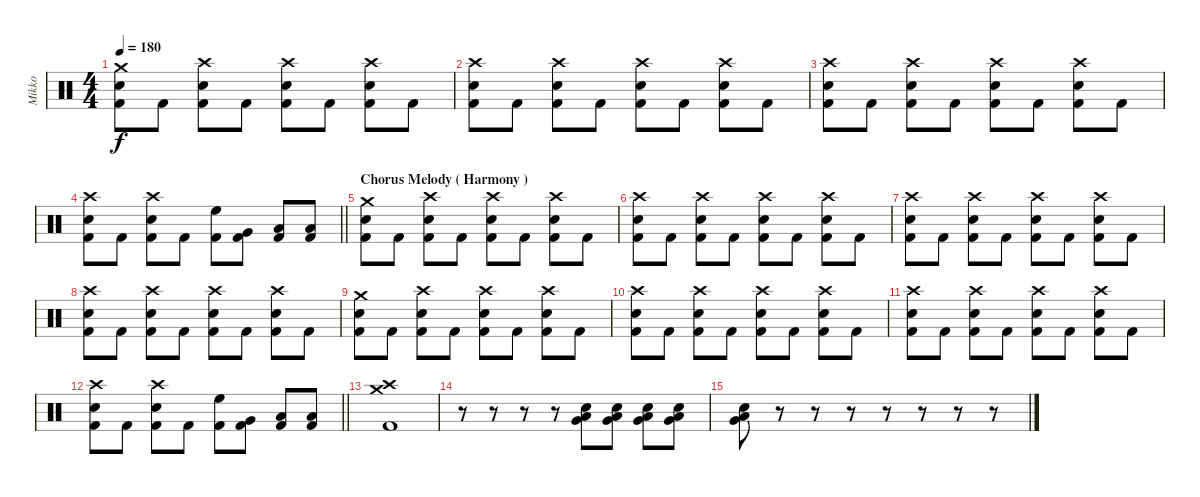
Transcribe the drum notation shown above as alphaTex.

\track ("Mikko" "Mikko") {instrument percussion}
\staff {score}
\articulation defaults
\ts (4 4)
\tempo 180
\clef neutral
\ks c
("Crash medium (hit)" "Electric Snare (hit)" "Kick (hit) 2").8{dy f} "Kick (hit) 2".8 ("Crash high (hit)" "Electric Snare (hit)" "Kick (hit) 2").8 "Kick (hit) 2".8 ("Crash high (hit)" "Electric Snare (hit)" "Kick (hit) 2").8 "Kick (hit) 2".8 ("Crash high (hit)" "Electric Snare (hit)" "Kick (hit) 2").8 "Kick (hit) 2".8 |
("Crash high (hit)" "Electric Snare (hit)" "Kick (hit) 2").8 "Kick (hit) 2".8 ("Crash high (hit)" "Electric Snare (hit)" "Kick (hit) 2").8 "Kick (hit) 2".8 ("Crash high (hit)" "Electric Snare (hit)" "Kick (hit) 2").8 "Kick (hit) 2".8 ("Crash high (hit)" "Electric Snare (hit)" "Kick (hit) 2").8 "Kick (hit) 2".8 |
("Crash high (hit)" "Electric Snare (hit)" "Kick (hit) 2").8 "Kick (hit) 2".8 ("Crash high (hit)" "Electric Snare (hit)" "Kick (hit) 2").8 "Kick (hit) 2".8 ("Crash high (hit)" "Electric Snare (hit)" "Kick (hit) 2").8 "Kick (hit) 2".8 ("Crash high (hit)" "Electric Snare (hit)" "Kick (hit) 2").8 "Kick (hit) 2".8 |
\barLineRight lightlight
("Crash high (hit)" "Electric Snare (hit)" "Kick (hit) 2").8 "Kick (hit) 2".8 ("Crash high (hit)" "Electric Snare (hit)" "Kick (hit) 2").8 "Kick (hit) 2".8 ("High Floor Tom (hit)" "Kick (hit) 2").8 ("Very Low Tom (hit)" "Kick (hit) 2").8 ("Low Floor Tom (hit)" "Kick (hit) 2").8 ("Low Tom (hit)" "Kick (hit) 2").8 |
\section ("" "Chorus Melody ( Harmony )")
("Crash medium (hit)" "Electric Snare (hit)" "Kick (hit) 2").8 "Kick (hit) 2".8 ("Crash high (hit)" "Electric Snare (hit)" "Kick (hit) 2").8 "Kick (hit) 2".8 ("Crash high (hit)" "Electric Snare (hit)" "Kick (hit) 2").8 "Kick (hit) 2".8 ("Crash high (hit)" "Electric Snare (hit)" "Kick (hit) 2").8 "Kick (hit) 2".8 |
("Crash high (hit)" "Electric Snare (hit)" "Kick (hit) 2").8 "Kick (hit) 2".8 ("Crash high (hit)" "Electric Snare (hit)" "Kick (hit) 2").8 "Kick (hit) 2".8 ("Crash high (hit)" "Electric Snare (hit)" "Kick (hit) 2").8 "Kick (hit) 2".8 ("Crash high (hit)" "Electric Snare (hit)" "Kick (hit) 2").8 "Kick (hit) 2".8 |
("Crash high (hit)" "Electric Snare (hit)" "Kick (hit) 2").8 "Kick (hit) 2".8 ("Crash high (hit)" "Electric Snare (hit)" "Kick (hit) 2").8 "Kick (hit) 2".8 ("Crash high (hit)" "Electric Snare (hit)" "Kick (hit) 2").8 "Kick (hit) 2".8 ("Crash high (hit)" "Electric Snare (hit)" "Kick (hit) 2").8 "Kick (hit) 2".8 |
("Crash high (hit)" "Electric Snare (hit)" "Kick (hit) 2").8 "Kick (hit) 2".8 ("Crash high (hit)" "Electric Snare (hit)" "Kick (hit) 2").8 "Kick (hit) 2".8 ("Crash high (hit)" "Electric Snare (hit)" "Kick (hit) 2").8 "Kick (hit) 2".8 ("Crash high (hit)" "Electric Snare (hit)" "Kick (hit) 2").8 "Kick (hit) 2".8 |
("Crash medium (hit)" "Electric Snare (hit)" "Kick (hit) 2").8 "Kick (hit) 2".8 ("Crash high (hit)" "Electric Snare (hit)" "Kick (hit) 2").8 "Kick (hit) 2".8 ("Crash high (hit)" "Electric Snare (hit)" "Kick (hit) 2").8 "Kick (hit) 2".8 ("Crash high (hit)" "Electric Snare (hit)" "Kick (hit) 2").8 "Kick (hit) 2".8 |
("Crash high (hit)" "Electric Snare (hit)" "Kick (hit) 2").8 "Kick (hit) 2".8 ("Crash high (hit)" "Electric Snare (hit)" "Kick (hit) 2").8 "Kick (hit) 2".8 ("Crash high (hit)" "Electric Snare (hit)" "Kick (hit) 2").8 "Kick (hit) 2".8 ("Crash high (hit)" "Electric Snare (hit)" "Kick (hit) 2").8 "Kick (hit) 2".8 |
("Crash high (hit)" "Electric Snare (hit)" "Kick (hit) 2").8 "Kick (hit) 2".8 ("Crash high (hit)" "Electric Snare (hit)" "Kick (hit) 2").8 "Kick (hit) 2".8 ("Crash high (hit)" "Electric Snare (hit)" "Kick (hit) 2").8 "Kick (hit) 2".8 ("Crash high (hit)" "Electric Snare (hit)" "Kick (hit) 2").8 "Kick (hit) 2".8 |
\barLineRight lightlight
("Crash high (hit)" "Electric Snare (hit)" "Kick (hit) 2").8 "Kick (hit) 2".8 ("Crash high (hit)" "Electric Snare (hit)" "Kick (hit) 2").8 "Kick (hit) 2".8 ("High Floor Tom (hit)" "Kick (hit) 2").8 ("Very Low Tom (hit)" "Kick (hit) 2").8 ("Low Floor Tom (hit)" "Kick (hit) 2").8 ("Low Tom (hit)" "Kick (hit) 2").8 |
("Crash medium (hit)" "Crash high (hit)" "Kick (hit) 2").1 |
r.8 r.8 r.8 r.8 ("Very Low Tom (hit)" "Low Tom (hit)" "Electric Snare (hit)").8 ("Very Low Tom (hit)" "Low Tom (hit)" "Electric Snare (hit)").8 ("Very Low Tom (hit)" "Low Tom (hit)" "Electric Snare (hit)").8 ("Very Low Tom (hit)" "Low Tom (hit)" "Electric Snare (hit)").8 |
("Very Low Tom (hit)" "Low Tom (hit)" "Electric Snare (hit)").8 r.8 r.8 r.8 r.8 r.8 r.8 r.8
